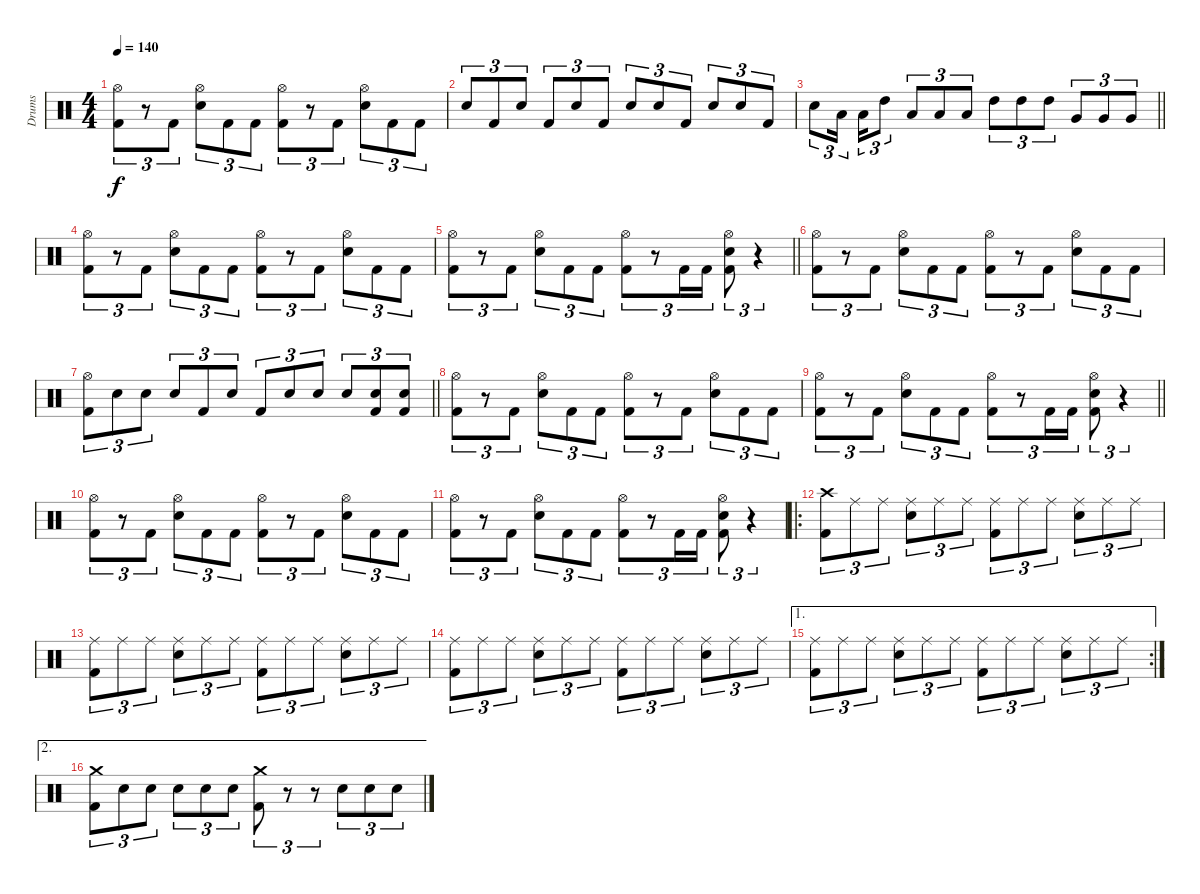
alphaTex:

\track ("Drums" "Drums") {instrument percussion}
\staff {score}
\articulation defaults
\ts (4 4)
\tempo 140
\clef neutral
\ks c
("Hi-Hat (open)" "Kick (hit) 2").8{tu (3 2) dy f} r.8{tu (3 2)} "Kick (hit) 2".8{tu (3 2)} ("Hi-Hat (open)" "Snare (hit) 2").8{tu (3 2)} "Kick (hit) 2".8{tu (3 2)} "Kick (hit) 2".8{tu (3 2)} ("Hi-Hat (open)" "Kick (hit) 2").8{tu (3 2)} r.8{tu (3 2)} "Kick (hit) 2".8{tu (3 2)} ("Hi-Hat (open)" "Snare (hit) 2").8{tu (3 2)} "Kick (hit) 2".8{tu (3 2)} "Kick (hit) 2".8{tu (3 2)} |
"Snare (hit) 2".8{tu (3 2)} "Kick (hit) 2".8{tu (3 2)} "Snare (hit) 2".8{tu (3 2)} "Kick (hit) 2".8{tu (3 2)} "Snare (hit) 2".8{tu (3 2)} "Kick (hit) 2".8{tu (3 2)} "Snare (hit) 2".8{tu (3 2)} "Snare (hit) 2".8{tu (3 2)} "Kick (hit) 2".8{tu (3 2)} "Snare (hit) 2".8{tu (3 2)} "Snare (hit) 2".8{tu (3 2)} "Kick (hit) 2".8{tu (3 2)} |
\barLineRight lightlight "Snare (hit) 2".8{tu (3 2)} "Low Tom (hit)".16{tu (3 2)} "Low Tom (hit)".16{tu (3 2)} "High Tom (hit)".8{tu (3 2)} "Low Tom (hit)".8{tu (3 2)} "Low Tom (hit)".8{tu (3 2)} "Low Tom (hit)".8{tu (3 2)} "High Tom (hit)".8{tu (3 2)} "High Tom (hit)".8{tu (3 2)} "High Tom (hit)".8{tu (3 2)} "Very Low Tom (hit)".8{tu (3 2)} "Very Low Tom (hit)".8{tu (3 2)} "Very Low Tom (hit)".8{tu (3 2)}
|
("Hi-Hat (open)" "Kick (hit) 2").8{tu (3 2)} r.8{tu (3 2)} "Kick (hit) 2".8{tu (3 2)} ("Hi-Hat (open)" "Snare (hit) 2").8{tu (3 2)} "Kick (hit) 2".8{tu (3 2)} "Kick (hit) 2".8{tu (3 2)} ("Hi-Hat (open)" "Kick (hit) 2").8{tu (3 2)} r.8{tu (3 2)} "Kick (hit) 2".8{tu (3 2)} ("Hi-Hat (open)" "Snare (hit) 2").8{tu (3 2)} "Kick (hit) 2".8{tu (3 2)} "Kick (hit) 2".8{tu (3 2)} |
\barLineRight lightlight
("Hi-Hat (open)" "Kick (hit) 2").8{tu (3 2)} r.8{tu (3 2)} "Kick (hit) 2".8{tu (3 2)} ("Hi-Hat (open)" "Snare (hit) 2").8{tu (3 2)} "Kick (hit) 2".8{tu (3 2)} "Kick (hit) 2".8{tu (3 2)} ("Hi-Hat (open)" "Kick (hit) 2").8{tu (3 2)} r.8{tu (3 2)} "Kick (hit) 2".16{tu (3 2)} "Kick (hit) 2".16{tu (3 2)} ("Hi-Hat (open)" "Snare (hit) 2" "Kick (hit) 2").8{tu (3 2)} r.4{tu (3 2)} |
("Hi-Hat (open)" "Kick (hit) 2").8{tu (3 2)} r.8{tu (3 2)} "Kick (hit) 2".8{tu (3 2)} ("Hi-Hat (open)" "Snare (hit) 2").8{tu (3 2)} "Kick (hit) 2".8{tu (3 2)} "Kick (hit) 2".8{tu (3 2)} ("Hi-Hat (open)" "Kick (hit) 2").8{tu (3 2)} r.8{tu (3 2)} "Kick (hit) 2".8{tu (3 2)} ("Hi-Hat (open)" "Snare (hit) 2").8{tu (3 2)} "Kick (hit) 2".8{tu (3 2)} "Kick (hit) 2".8{tu (3 2)} |
\barLineRight lightlight
("Hi-Hat (open)" "Kick (hit) 2").8{tu (3 2)} "Snare (hit) 2".8{tu (3 2)} "Snare (hit) 2".8{tu (3 2)} "Snare (hit) 2".8{tu (3 2)} "Kick (hit) 2".8{tu (3 2)} "Snare (hit) 2".8{tu (3 2)} "Kick (hit) 2".8{tu (3 2)} "Snare (hit) 2".8{tu (3 2)} "Snare (hit) 2".8{tu (3 2)} "Snare (hit) 2".8{tu (3 2)} ("Snare (hit) 2" "Kick (hit) 2").8{tu (3 2)} ("Snare (hit) 2" "Kick (hit) 2").8{tu (3 2)} |
("Hi-Hat (open)" "Kick (hit) 2").8{tu (3 2)} r.8{tu (3 2)} "Kick (hit) 2".8{tu (3 2)} ("Hi-Hat (open)" "Snare (hit) 2").8{tu (3 2)} "Kick (hit) 2".8{tu (3 2)} "Kick (hit) 2".8{tu (3 2)} ("Hi-Hat (open)" "Kick (hit) 2").8{tu (3 2)} r.8{tu (3 2)} "Kick (hit) 2".8{tu (3 2)} ("Hi-Hat (open)" "Snare (hit) 2").8{tu (3 2)} "Kick (hit) 2".8{tu (3 2)} "Kick (hit) 2".8{tu (3 2)} |
\barLineRight lightlight
("Hi-Hat (open)" "Kick (hit) 2").8{tu (3 2)} r.8{tu (3 2)} "Kick (hit) 2".8{tu (3 2)} ("Hi-Hat (open)" "Snare (hit) 2").8{tu (3 2)} "Kick (hit) 2".8{tu (3 2)} "Kick (hit) 2".8{tu (3 2)} ("Hi-Hat (open)" "Kick (hit) 2").8{tu (3 2)} r.8{tu (3 2)} "Kick (hit) 2".16{tu (3 2)} "Kick (hit) 2".16{tu (3 2)} ("Hi-Hat (open)" "Snare (hit) 2" "Kick (hit) 2").8{tu (3 2)} r.4{tu (3 2)} |
("Hi-Hat (open)" "Kick (hit) 2").8{tu (3 2)} r.8{tu (3 2)} "Kick (hit) 2".8{tu (3 2)} ("Hi-Hat (open)" "Snare (hit) 2").8{tu (3 2)} "Kick (hit) 2".8{tu (3 2)} "Kick (hit) 2".8{tu (3 2)} ("Hi-Hat (open)" "Kick (hit) 2").8{tu (3 2)} r.8{tu (3 2)} "Kick (hit) 2".8{tu (3 2)} ("Hi-Hat (open)" "Snare (hit) 2").8{tu (3 2)} "Kick (hit) 2".8{tu (3 2)} "Kick (hit) 2".8{tu (3 2)} |
("Hi-Hat (open)" "Kick (hit) 2").8{tu (3 2)} r.8{tu (3 2)} "Kick (hit) 2".8{tu (3 2)} ("Hi-Hat (open)" "Snare (hit) 2").8{tu (3 2)} "Kick (hit) 2".8{tu (3 2)} "Kick (hit) 2".8{tu (3 2)} ("Hi-Hat (open)" "Kick (hit) 2").8{tu (3 2)} r.8{tu (3 2)} "Kick (hit) 2".16{tu (3 2)} "Kick (hit) 2".16{tu (3 2)} ("Hi-Hat (open)" "Snare (hit) 2" "Kick (hit) 2").8{tu (3 2)} r.4{tu (3 2)} |
\ro
("Crash high (hit)" "Kick (hit) 2").8{tu (3 2)} "Ride (middle)".8{tu (3 2)} "Ride (middle)".8{tu (3 2)} ("Ride (middle)" "Snare (hit) 2").8{tu (3 2)} "Ride (middle)".8{tu (3 2)} "Ride (middle)".8{tu (3 2)} ("Ride (middle)" "Kick (hit) 2").8{tu (3 2)} "Ride (middle)".8{tu (3 2)} "Ride (middle)".8{tu (3 2)} ("Ride (middle)" "Snare (hit) 2").8{tu (3 2)} "Ride (middle)".8{tu (3 2)} "Ride (middle)".8{tu (3 2)} |
("Ride (middle)" "Kick (hit) 2").8{tu (3 2)} "Ride (middle)".8{tu (3 2)} "Ride (middle)".8{tu (3 2)} ("Ride (middle)" "Snare (hit) 2").8{tu (3 2)} "Ride (middle)".8{tu (3 2)} "Ride (middle)".8{tu (3 2)} ("Ride (middle)" "Kick (hit) 2").8{tu (3 2)} "Ride (middle)".8{tu (3 2)} "Ride (middle)".8{tu (3 2)} ("Ride (middle)" "Snare (hit) 2").8{tu (3 2)} "Ride (middle)".8{tu (3 2)} "Ride (middle)".8{tu (3 2)} |
("Ride (middle)" "Kick (hit) 2").8{tu (3 2)} "Ride (middle)".8{tu (3 2)} "Ride (middle)".8{tu (3 2)} ("Ride (middle)" "Snare (hit) 2").8{tu (3 2)} "Ride (middle)".8{tu (3 2)} "Ride (middle)".8{tu (3 2)} ("Ride (middle)" "Kick (hit) 2").8{tu (3 2)} "Ride (middle)".8{tu (3 2)} "Ride (middle)".8{tu (3 2)} ("Ride (middle)" "Snare (hit) 2").8{tu (3 2)} "Ride (middle)".8{tu (3 2)} "Ride (middle)".8{tu (3 2)} |
\ae 1
\rc 2
("Ride (middle)" "Kick (hit) 2").8{tu (3 2)} "Ride (middle)".8{tu (3 2)} "Ride (middle)".8{tu (3 2)} ("Ride (middle)" "Snare (hit) 2").8{tu (3 2)} "Ride (middle)".8{tu (3 2)} "Ride (middle)".8{tu (3 2)} ("Ride (middle)" "Kick (hit) 2").8{tu (3 2)} "Ride (middle)".8{tu (3 2)} "Ride (middle)".8{tu (3 2)} ("Ride (middle)" "Snare (hit) 2").8{tu (3 2)} "Ride (middle)".8{tu (3 2)} "Ride (middle)".8{tu (3 2)} |
\ae 2
("Crash medium (hit)" "Kick (hit) 2").8{tu (3 2)} "Snare (hit) 2".8{tu (3 2)} "Snare (hit) 2".8{tu (3 2)} "Snare (hit) 2".8{tu (3 2)} "Snare (hit) 2".8{tu (3 2)} "Snare (hit) 2".8{tu (3 2)} ("Crash medium (hit)" "Kick (hit) 2").8{tu (3 2)} r.8{tu (3 2)} r.8{tu (3 2)} "Snare (hit) 2".8{tu (3 2)} "Snare (hit) 2".8{tu (3 2)} "Snare (hit) 2".8{tu (3 2)}
